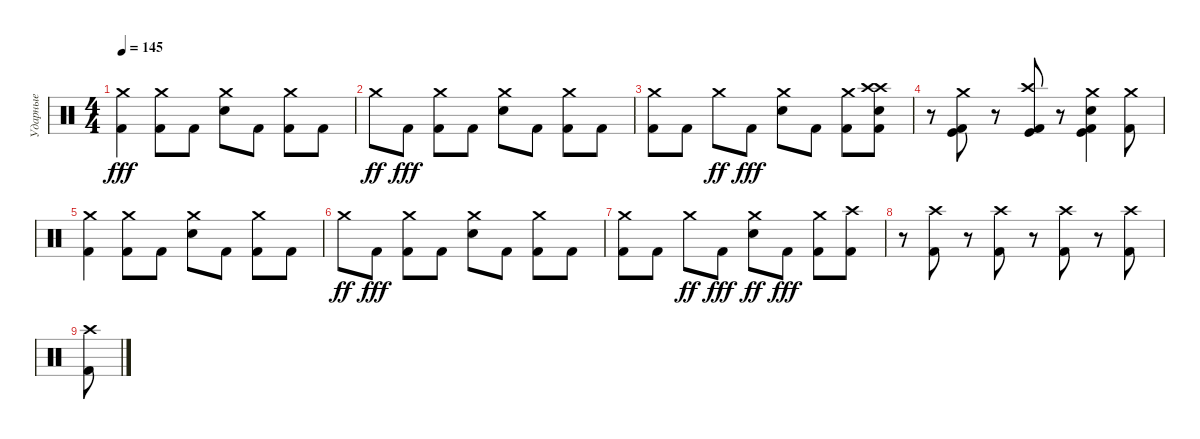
\track ("Ударные" "Ударные") {instrument percussion}
\staff {score}
\articulation defaults
\ts (4 4)
\tempo 145
\clef neutral
\ks c
("Crash medium (hit)" "Kick (hit) 2").4{dy fff} ("Crash medium (hit)" "Kick (hit) 2").8 "Kick (hit) 2".8 ("Crash medium (hit)" "Electric Snare (hit)").8 "Kick (hit) 2".8 ("Crash medium (hit)" "Kick (hit) 2").8 "Kick (hit) 2".8 |
"Crash medium (hit)".8{dy ff} "Kick (hit) 2".8{dy fff} ("Crash medium (hit)" "Kick (hit) 2").8 "Kick (hit) 2".8 ("Crash medium (hit)" "Electric Snare (hit)").8 "Kick (hit) 2".8 ("Crash medium (hit)" "Kick (hit) 2").8 "Kick (hit) 2".8 |
("Crash medium (hit)" "Kick (hit) 2").8 "Kick (hit) 2".8 "Crash medium (hit)".8{dy ff} "Kick (hit) 2".8{dy fff} ("Crash medium (hit)" "Electric Snare (hit)").8 "Kick (hit) 2".8 ("Crash medium (hit)" "Kick (hit) 2").8 ("Crash high (hit)" "Crash high (hit)" "Electric Snare (hit)" "Kick (hit) 2").8 |
r.8 ("Crash medium (hit)" "Kick (hit) 2" "Kick (hit)").8 r.8 ("Crash high (hit)" "Kick (hit) 2" "Kick (hit)").8 r.8 ("Crash medium (hit)" "Electric Snare (hit)" "Kick (hit) 2" "Kick (hit)").4 ("Crash medium (hit)" "Kick (hit) 2").8 |
("Crash medium (hit)" "Kick (hit) 2").4 ("Crash medium (hit)" "Kick (hit) 2").8 "Kick (hit) 2".8 ("Crash medium (hit)" "Electric Snare (hit)").8 "Kick (hit) 2".8 ("Crash medium (hit)" "Kick (hit) 2").8 "Kick (hit) 2".8 |
"Crash medium (hit)".8{dy ff} "Kick (hit) 2".8{dy fff} ("Crash medium (hit)" "Kick (hit) 2").8 "Kick (hit) 2".8 ("Crash medium (hit)" "Electric Snare (hit)").8 "Kick (hit) 2".8 ("Crash medium (hit)" "Kick (hit) 2").8 "Kick (hit) 2".8 |
("Crash medium (hit)" "Kick (hit) 2").8 "Kick (hit) 2".8 "Crash medium (hit)".8{dy ff} "Kick (hit) 2".8{dy fff} ("Crash medium (hit)" "Electric Snare (hit)").8{dy ff} "Kick (hit) 2".8{dy fff} ("Crash medium (hit)" "Kick (hit) 2").8 ("Crash high (hit)" "Kick (hit) 2").8 |
r.8 ("Crash high (hit)" "Kick (hit) 2").8 r.8 ("Crash high (hit)" "Kick (hit) 2").8 r.8 ("Crash high (hit)" "Kick (hit) 2").8 r.8 ("Crash high (hit)" "Kick (hit) 2").8 |
("Crash high (hit)" "Kick (hit) 2").8
